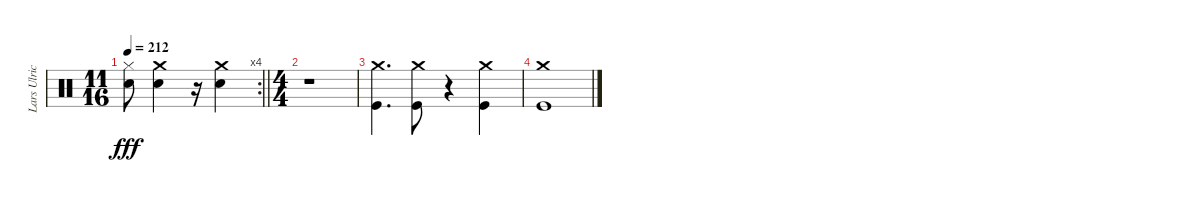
\track ("Lars Ulrich" "Lars Ulric") {instrument percussion}
\staff {score}
\articulation defaults
\rc 4
\ts (11 16)
\tempo 212
\clef neutral
\barLineRight lightlight
\ks c
("Hi-Hat (closed)" "Snare (hit) 2").8{dy fff} ("Snare (hit) 2" "Crash medium (hit)").4 r.16 ("Crash medium (hit)" "Snare (hit) 2").4 |
\ts (4 4)
r.1 |
("Kick (hit)" "Crash medium (hit)").4{d} ("Kick (hit)" "Crash medium (hit)").8 r.4 ("Kick (hit)" "Crash medium (hit)").4 |
("Crash medium (hit)" "Kick (hit)").1
